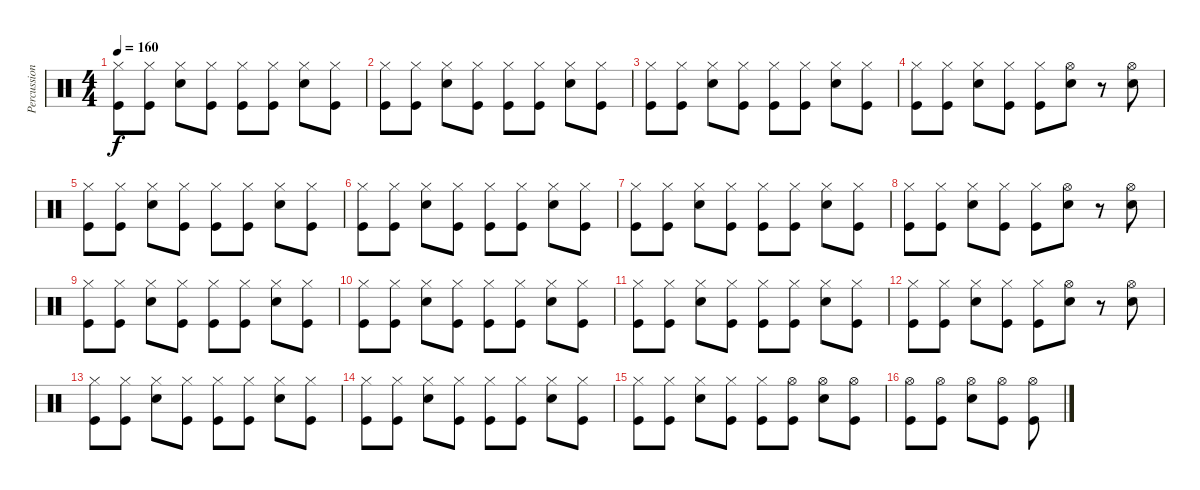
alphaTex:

\track ("Percussion" "Percussion") {instrument percussion}
\staff {score}
\articulation defaults
\ts (4 4)
\tempo 160
\clef neutral
\ks c
("Hi-Hat (closed)" "Kick (hit)").8{dy f} ("Hi-Hat (closed)" "Kick (hit)").8 ("Hi-Hat (closed)" "Electric Snare (hit)").8 ("Hi-Hat (closed)" "Kick (hit)").8 ("Hi-Hat (closed)" "Kick (hit)").8 ("Hi-Hat (closed)" "Kick (hit)").8 ("Hi-Hat (closed)" "Electric Snare (hit)").8 ("Hi-Hat (closed)" "Kick (hit)").8 |
("Hi-Hat (closed)" "Kick (hit)").8 ("Hi-Hat (closed)" "Kick (hit)").8 ("Hi-Hat (closed)" "Electric Snare (hit)").8 ("Hi-Hat (closed)" "Kick (hit)").8 ("Hi-Hat (closed)" "Kick (hit)").8 ("Hi-Hat (closed)" "Kick (hit)").8 ("Hi-Hat (closed)" "Electric Snare (hit)").8 ("Hi-Hat (closed)" "Kick (hit)").8 |
("Hi-Hat (closed)" "Kick (hit)").8 ("Hi-Hat (closed)" "Kick (hit)").8 ("Hi-Hat (closed)" "Electric Snare (hit)").8 ("Hi-Hat (closed)" "Kick (hit)").8 ("Hi-Hat (closed)" "Kick (hit)").8 ("Hi-Hat (closed)" "Kick (hit)").8 ("Hi-Hat (closed)" "Electric Snare (hit)").8 ("Hi-Hat (closed)" "Kick (hit)").8 |
("Hi-Hat (closed)" "Kick (hit)").8 ("Hi-Hat (closed)" "Kick (hit)").8 ("Hi-Hat (closed)" "Electric Snare (hit)").8 ("Hi-Hat (closed)" "Kick (hit)").8 ("Hi-Hat (closed)" "Kick (hit)").8 ("Hi-Hat (open)" "Electric Snare (hit)").8 r.8 ("Hi-Hat (open)" "Electric Snare (hit)").8 |
("Hi-Hat (closed)" "Kick (hit)").8 ("Hi-Hat (closed)" "Kick (hit)").8 ("Hi-Hat (closed)" "Electric Snare (hit)").8 ("Hi-Hat (closed)" "Kick (hit)").8 ("Hi-Hat (closed)" "Kick (hit)").8 ("Hi-Hat (closed)" "Kick (hit)").8 ("Hi-Hat (closed)" "Electric Snare (hit)").8 ("Hi-Hat (closed)" "Kick (hit)").8 |
("Hi-Hat (closed)" "Kick (hit)").8 ("Hi-Hat (closed)" "Kick (hit)").8 ("Hi-Hat (closed)" "Electric Snare (hit)").8 ("Hi-Hat (closed)" "Kick (hit)").8 ("Hi-Hat (closed)" "Kick (hit)").8 ("Hi-Hat (closed)" "Kick (hit)").8 ("Hi-Hat (closed)" "Electric Snare (hit)").8 ("Hi-Hat (closed)" "Kick (hit)").8 |
("Hi-Hat (closed)" "Kick (hit)").8 ("Hi-Hat (closed)" "Kick (hit)").8 ("Hi-Hat (closed)" "Electric Snare (hit)").8 ("Hi-Hat (closed)" "Kick (hit)").8 ("Hi-Hat (closed)" "Kick (hit)").8 ("Hi-Hat (closed)" "Kick (hit)").8 ("Hi-Hat (closed)" "Electric Snare (hit)").8 ("Hi-Hat (closed)" "Kick (hit)").8 |
("Hi-Hat (closed)" "Kick (hit)").8 ("Hi-Hat (closed)" "Kick (hit)").8 ("Hi-Hat (closed)" "Electric Snare (hit)").8 ("Hi-Hat (closed)" "Kick (hit)").8 ("Hi-Hat (closed)" "Kick (hit)").8 ("Hi-Hat (open)" "Electric Snare (hit)").8 r.8 ("Hi-Hat (open)" "Electric Snare (hit)").8 |
("Hi-Hat (closed)" "Kick (hit)").8 ("Hi-Hat (closed)" "Kick (hit)").8 ("Hi-Hat (closed)" "Electric Snare (hit)").8 ("Hi-Hat (closed)" "Kick (hit)").8 ("Hi-Hat (closed)" "Kick (hit)").8 ("Hi-Hat (closed)" "Kick (hit)").8 ("Hi-Hat (closed)" "Electric Snare (hit)").8 ("Hi-Hat (closed)" "Kick (hit)").8 |
("Hi-Hat (closed)" "Kick (hit)").8 ("Hi-Hat (closed)" "Kick (hit)").8 ("Hi-Hat (closed)" "Electric Snare (hit)").8 ("Hi-Hat (closed)" "Kick (hit)").8 ("Hi-Hat (closed)" "Kick (hit)").8 ("Hi-Hat (closed)" "Kick (hit)").8 ("Hi-Hat (closed)" "Electric Snare (hit)").8 ("Hi-Hat (closed)" "Kick (hit)").8 |
("Hi-Hat (closed)" "Kick (hit)").8 ("Hi-Hat (closed)" "Kick (hit)").8 ("Hi-Hat (closed)" "Electric Snare (hit)").8 ("Hi-Hat (closed)" "Kick (hit)").8 ("Hi-Hat (closed)" "Kick (hit)").8 ("Hi-Hat (closed)" "Kick (hit)").8 ("Hi-Hat (closed)" "Electric Snare (hit)").8 ("Hi-Hat (closed)" "Kick (hit)").8 |
("Hi-Hat (closed)" "Kick (hit)").8 ("Hi-Hat (closed)" "Kick (hit)").8 ("Hi-Hat (closed)" "Electric Snare (hit)").8 ("Hi-Hat (closed)" "Kick (hit)").8 ("Hi-Hat (closed)" "Kick (hit)").8 ("Hi-Hat (open)" "Electric Snare (hit)").8 r.8 ("Hi-Hat (open)" "Electric Snare (hit)").8 |
("Hi-Hat (closed)" "Kick (hit)").8 ("Hi-Hat (closed)" "Kick (hit)").8 ("Hi-Hat (closed)" "Electric Snare (hit)").8 ("Hi-Hat (closed)" "Kick (hit)").8 ("Hi-Hat (closed)" "Kick (hit)").8 ("Hi-Hat (closed)" "Kick (hit)").8 ("Hi-Hat (closed)" "Electric Snare (hit)").8 ("Hi-Hat (closed)" "Kick (hit)").8 |
("Hi-Hat (closed)" "Kick (hit)").8 ("Hi-Hat (closed)" "Kick (hit)").8 ("Hi-Hat (closed)" "Electric Snare (hit)").8 ("Hi-Hat (closed)" "Kick (hit)").8 ("Hi-Hat (closed)" "Kick (hit)").8 ("Hi-Hat (closed)" "Kick (hit)").8 ("Hi-Hat (closed)" "Electric Snare (hit)").8 ("Hi-Hat (closed)" "Kick (hit)").8 |
("Hi-Hat (closed)" "Kick (hit)").8 ("Hi-Hat (closed)" "Kick (hit)").8 ("Hi-Hat (closed)" "Electric Snare (hit)").8 ("Hi-Hat (closed)" "Kick (hit)").8 ("Hi-Hat (closed)" "Kick (hit)").8 ("Hi-Hat (open)" "Kick (hit)").8 ("Hi-Hat (open)" "Electric Snare (hit)").8 ("Hi-Hat (open)" "Kick (hit)").8 |
("Hi-Hat (open)" "Kick (hit)").8 ("Hi-Hat (open)" "Kick (hit)").8 ("Hi-Hat (open)" "Electric Snare (hit)").8 ("Hi-Hat (open)" "Kick (hit)").8 ("Hi-Hat (open)" "Kick (hit)").8
